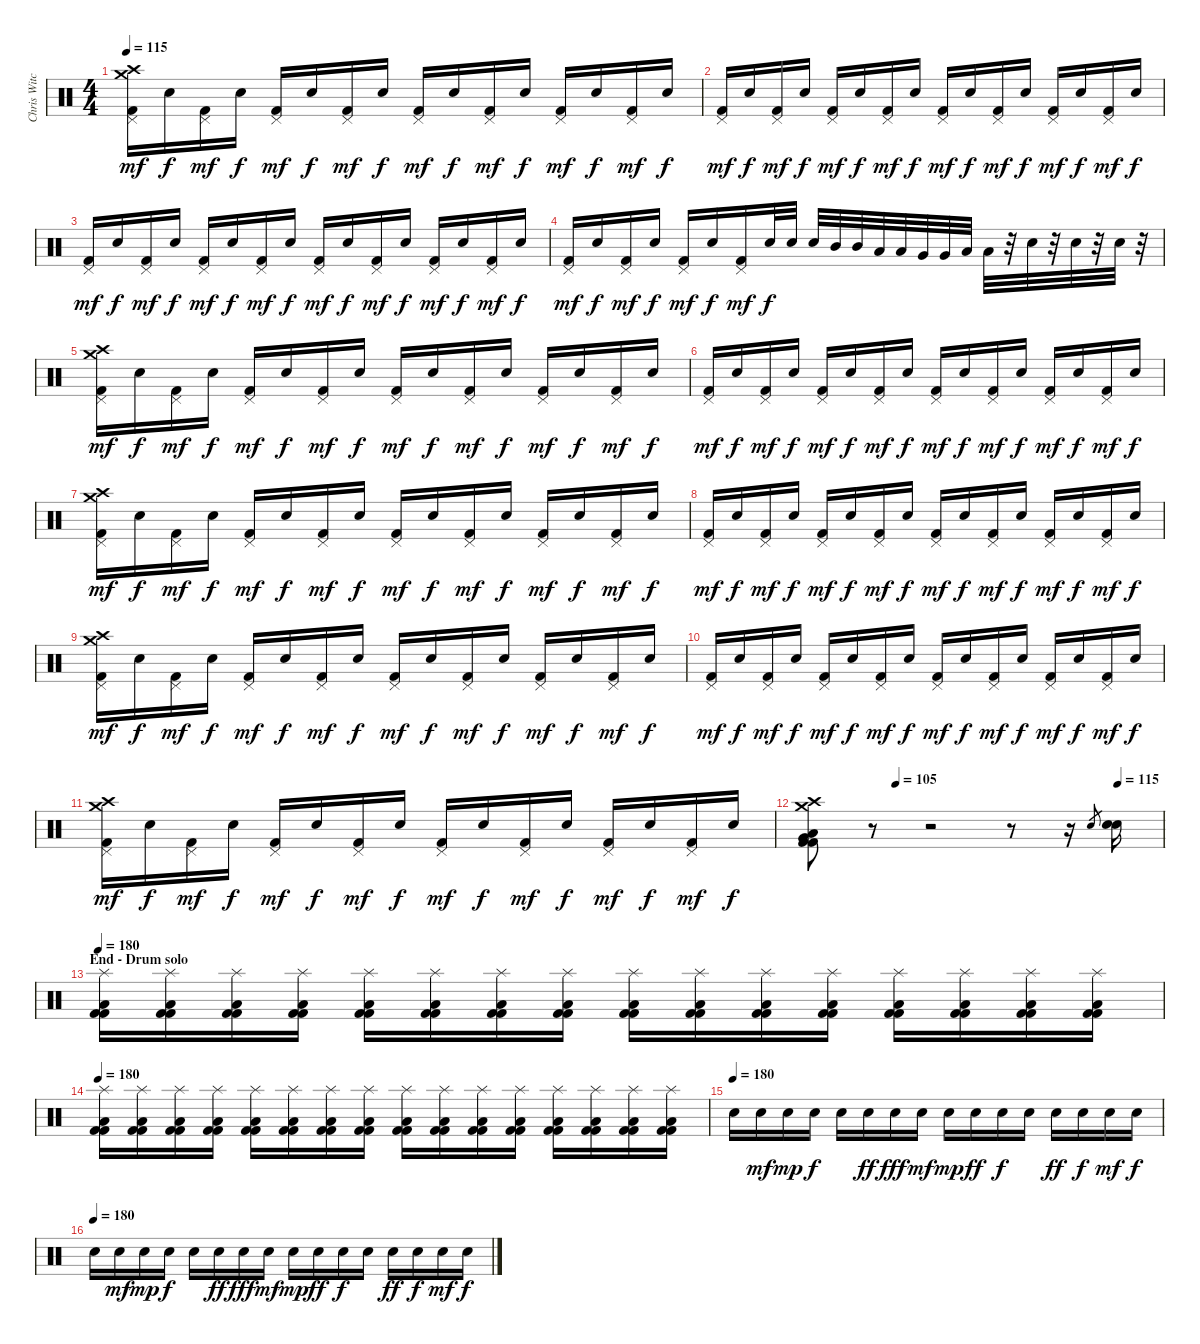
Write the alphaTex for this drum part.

\track ("Chris Witchhunter (Drums)" "Chris Witc") {instrument percussion}
\staff {score}
\articulation defaults
\ts (4 4)
\tempo 115
\clef neutral
\ks c
("Crash high (hit)" "Crash medium (hit)" "Pedal Hi-Hat (hit)" "Kick (hit) 2").16{dy mf} "Snare (hit) 2".16{dy f} ("Pedal Hi-Hat (hit)" "Kick (hit) 2").16{dy mf} "Snare (hit) 2".16{dy f} ("Pedal Hi-Hat (hit)" "Kick (hit) 2").16{dy mf} "Snare (hit) 2".16{dy f} ("Pedal Hi-Hat (hit)" "Kick (hit) 2").16{dy mf} "Snare (hit) 2".16{dy f} ("Pedal Hi-Hat (hit)" "Kick (hit) 2").16{dy mf} "Snare (hit) 2".16{dy f} ("Pedal Hi-Hat (hit)" "Kick (hit) 2").16{dy mf} "Snare (hit) 2".16{dy f} ("Pedal Hi-Hat (hit)" "Kick (hit) 2").16{dy mf} "Snare (hit) 2".16{dy f} ("Pedal Hi-Hat (hit)" "Kick (hit) 2").16{dy mf} "Snare (hit) 2".16{dy f} |
("Pedal Hi-Hat (hit)" "Kick (hit) 2").16{dy mf} "Snare (hit) 2".16{dy f} ("Pedal Hi-Hat (hit)" "Kick (hit) 2").16{dy mf} "Snare (hit) 2".16{dy f} ("Pedal Hi-Hat (hit)" "Kick (hit) 2").16{dy mf} "Snare (hit) 2".16{dy f} ("Pedal Hi-Hat (hit)" "Kick (hit) 2").16{dy mf} "Snare (hit) 2".16{dy f} ("Pedal Hi-Hat (hit)" "Kick (hit) 2").16{dy mf} "Snare (hit) 2".16{dy f} ("Pedal Hi-Hat (hit)" "Kick (hit) 2").16{dy mf} "Snare (hit) 2".16{dy f} ("Pedal Hi-Hat (hit)" "Kick (hit) 2").16{dy mf} "Snare (hit) 2".16{dy f} ("Pedal Hi-Hat (hit)" "Kick (hit) 2").16{dy mf} "Snare (hit) 2".16{dy f} |
("Pedal Hi-Hat (hit)" "Kick (hit) 2").16{dy mf} "Snare (hit) 2".16{dy f} ("Pedal Hi-Hat (hit)" "Kick (hit) 2").16{dy mf} "Snare (hit) 2".16{dy f} ("Pedal Hi-Hat (hit)" "Kick (hit) 2").16{dy mf} "Snare (hit) 2".16{dy f} ("Pedal Hi-Hat (hit)" "Kick (hit) 2").16{dy mf} "Snare (hit) 2".16{dy f} ("Pedal Hi-Hat (hit)" "Kick (hit) 2").16{dy mf} "Snare (hit) 2".16{dy f} ("Pedal Hi-Hat (hit)" "Kick (hit) 2").16{dy mf} "Snare (hit) 2".16{dy f} ("Pedal Hi-Hat (hit)" "Kick (hit) 2").16{dy mf} "Snare (hit) 2".16{dy f} ("Pedal Hi-Hat (hit)" "Kick (hit) 2").16{dy mf} "Snare (hit) 2".16{dy f} |
("Pedal Hi-Hat (hit)" "Kick (hit) 2").16{dy mf} "Snare (hit) 2".16{dy f} ("Pedal Hi-Hat (hit)" "Kick (hit) 2").16{dy mf} "Snare (hit) 2".16{dy f} ("Pedal Hi-Hat (hit)" "Kick (hit) 2").16{dy mf} "Snare (hit) 2".16{dy f} ("Pedal Hi-Hat (hit)" "Kick (hit) 2").16{dy mf} "Snare (hit) 2".32{dy f} "Snare (hit) 2".32 "Snare (hit) 2".32 "Mid Tom (hit)".32 "Mid Tom (hit)".32 "Low Tom (hit)".32 "Low Tom (hit)".32 "Very Low Tom (hit)".32 "Very Low Tom (hit)".32 "Low Floor Tom (hit)".32 "Low Floor Tom (hit)".32 r.32 "Snare (hit) 2".32 r.32 "Snare (hit) 2".32 r.32 "Snare (hit) 2".32 r.32 |
("Crash high (hit)" "Crash medium (hit)" "Pedal Hi-Hat (hit)" "Kick (hit) 2").16{dy mf} "Snare (hit) 2".16{dy f} ("Pedal Hi-Hat (hit)" "Kick (hit) 2").16{dy mf} "Snare (hit) 2".16{dy f} ("Pedal Hi-Hat (hit)" "Kick (hit) 2").16{dy mf} "Snare (hit) 2".16{dy f} ("Pedal Hi-Hat (hit)" "Kick (hit) 2").16{dy mf} "Snare (hit) 2".16{dy f} ("Pedal Hi-Hat (hit)" "Kick (hit) 2").16{dy mf} "Snare (hit) 2".16{dy f} ("Pedal Hi-Hat (hit)" "Kick (hit) 2").16{dy mf} "Snare (hit) 2".16{dy f} ("Pedal Hi-Hat (hit)" "Kick (hit) 2").16{dy mf} "Snare (hit) 2".16{dy f} ("Pedal Hi-Hat (hit)" "Kick (hit) 2").16{dy mf} "Snare (hit) 2".16{dy f} |
("Pedal Hi-Hat (hit)" "Kick (hit) 2").16{dy mf} "Snare (hit) 2".16{dy f} ("Pedal Hi-Hat (hit)" "Kick (hit) 2").16{dy mf} "Snare (hit) 2".16{dy f} ("Pedal Hi-Hat (hit)" "Kick (hit) 2").16{dy mf} "Snare (hit) 2".16{dy f} ("Pedal Hi-Hat (hit)" "Kick (hit) 2").16{dy mf} "Snare (hit) 2".16{dy f} ("Pedal Hi-Hat (hit)" "Kick (hit) 2").16{dy mf} "Snare (hit) 2".16{dy f} ("Pedal Hi-Hat (hit)" "Kick (hit) 2").16{dy mf} "Snare (hit) 2".16{dy f} ("Pedal Hi-Hat (hit)" "Kick (hit) 2").16{dy mf} "Snare (hit) 2".16{dy f} ("Pedal Hi-Hat (hit)" "Kick (hit) 2").16{dy mf} "Snare (hit) 2".16{dy f} |
("Crash high (hit)" "Crash medium (hit)" "Pedal Hi-Hat (hit)" "Kick (hit) 2").16{dy mf} "Snare (hit) 2".16{dy f} ("Pedal Hi-Hat (hit)" "Kick (hit) 2").16{dy mf} "Snare (hit) 2".16{dy f} ("Pedal Hi-Hat (hit)" "Kick (hit) 2").16{dy mf} "Snare (hit) 2".16{dy f} ("Pedal Hi-Hat (hit)" "Kick (hit) 2").16{dy mf} "Snare (hit) 2".16{dy f} ("Pedal Hi-Hat (hit)" "Kick (hit) 2").16{dy mf} "Snare (hit) 2".16{dy f} ("Pedal Hi-Hat (hit)" "Kick (hit) 2").16{dy mf} "Snare (hit) 2".16{dy f} ("Pedal Hi-Hat (hit)" "Kick (hit) 2").16{dy mf} "Snare (hit) 2".16{dy f} ("Pedal Hi-Hat (hit)" "Kick (hit) 2").16{dy mf} "Snare (hit) 2".16{dy f} |
("Pedal Hi-Hat (hit)" "Kick (hit) 2").16{dy mf} "Snare (hit) 2".16{dy f} ("Pedal Hi-Hat (hit)" "Kick (hit) 2").16{dy mf} "Snare (hit) 2".16{dy f} ("Pedal Hi-Hat (hit)" "Kick (hit) 2").16{dy mf} "Snare (hit) 2".16{dy f} ("Pedal Hi-Hat (hit)" "Kick (hit) 2").16{dy mf} "Snare (hit) 2".16{dy f} ("Pedal Hi-Hat (hit)" "Kick (hit) 2").16{dy mf} "Snare (hit) 2".16{dy f} ("Pedal Hi-Hat (hit)" "Kick (hit) 2").16{dy mf} "Snare (hit) 2".16{dy f} ("Pedal Hi-Hat (hit)" "Kick (hit) 2").16{dy mf} "Snare (hit) 2".16{dy f} ("Pedal Hi-Hat (hit)" "Kick (hit) 2").16{dy mf} "Snare (hit) 2".16{dy f} |
("Crash high (hit)" "Crash medium (hit)" "Pedal Hi-Hat (hit)" "Kick (hit) 2").16{dy mf} "Snare (hit) 2".16{dy f} ("Pedal Hi-Hat (hit)" "Kick (hit) 2").16{dy mf} "Snare (hit) 2".16{dy f} ("Pedal Hi-Hat (hit)" "Kick (hit) 2").16{dy mf} "Snare (hit) 2".16{dy f} ("Pedal Hi-Hat (hit)" "Kick (hit) 2").16{dy mf} "Snare (hit) 2".16{dy f} ("Pedal Hi-Hat (hit)" "Kick (hit) 2").16{dy mf} "Snare (hit) 2".16{dy f} ("Pedal Hi-Hat (hit)" "Kick (hit) 2").16{dy mf} "Snare (hit) 2".16{dy f} ("Pedal Hi-Hat (hit)" "Kick (hit) 2").16{dy mf} "Snare (hit) 2".16{dy f} ("Pedal Hi-Hat (hit)" "Kick (hit) 2").16{dy mf} "Snare (hit) 2".16{dy f} |
("Pedal Hi-Hat (hit)" "Kick (hit) 2").16{dy mf} "Snare (hit) 2".16{dy f} ("Pedal Hi-Hat (hit)" "Kick (hit) 2").16{dy mf} "Snare (hit) 2".16{dy f} ("Pedal Hi-Hat (hit)" "Kick (hit) 2").16{dy mf} "Snare (hit) 2".16{dy f} ("Pedal Hi-Hat (hit)" "Kick (hit) 2").16{dy mf} "Snare (hit) 2".16{dy f} ("Pedal Hi-Hat (hit)" "Kick (hit) 2").16{dy mf} "Snare (hit) 2".16{dy f} ("Pedal Hi-Hat (hit)" "Kick (hit) 2").16{dy mf} "Snare (hit) 2".16{dy f} ("Pedal Hi-Hat (hit)" "Kick (hit) 2").16{dy mf} "Snare (hit) 2".16{dy f} ("Pedal Hi-Hat (hit)" "Kick (hit) 2").16{dy mf} "Snare (hit) 2".16{dy f} |
("Crash high (hit)" "Crash medium (hit)" "Pedal Hi-Hat (hit)" "Kick (hit) 2").16{dy mf} "Snare (hit) 2".16{dy f} ("Pedal Hi-Hat (hit)" "Kick (hit) 2").16{dy mf} "Snare (hit) 2".16{dy f} ("Pedal Hi-Hat (hit)" "Kick (hit) 2").16{dy mf} "Snare (hit) 2".16{dy f} ("Pedal Hi-Hat (hit)" "Kick (hit) 2").16{dy mf} "Snare (hit) 2".16{dy f} ("Pedal Hi-Hat (hit)" "Kick (hit) 2").16{dy mf} "Snare (hit) 2".16{dy f} ("Pedal Hi-Hat (hit)" "Kick (hit) 2").16{dy mf} "Snare (hit) 2".16{dy f} ("Pedal Hi-Hat (hit)" "Kick (hit) 2").16{dy mf} "Snare (hit) 2".16{dy f} ("Pedal Hi-Hat (hit)" "Kick (hit) 2").16{dy mf} "Snare (hit) 2".16{dy f} |
\tempo (105 0.25)
\tempo (115 0.875)
("Crash medium (hit)" "Crash high (hit)" "Very Low Tom (hit)" "Low Floor Tom (hit)" "Kick (hit) 2" "Kick (hit) 2").8 r.8 r.2 r.8 r.16 "Snare (hit) 2".8{gr} ("Snare (hit) 2" "Snare (hit) 2").16 |
\section ("" "End - Drum solo")
\tempo 180
("Low Floor Tom (hit)" "Splash (hit)" "Kick (hit) 2" "Kick (hit) 2").16 ("Low Floor Tom (hit)" "Splash (hit)" "Kick (hit) 2" "Kick (hit) 2").16 ("Low Floor Tom (hit)" "Splash (hit)" "Kick (hit) 2" "Kick (hit) 2").16 ("Low Floor Tom (hit)" "Splash (hit)" "Kick (hit) 2" "Kick (hit) 2").16 ("Low Floor Tom (hit)" "Splash (hit)" "Kick (hit) 2" "Kick (hit) 2").16 ("Low Floor Tom (hit)" "Splash (hit)" "Kick (hit) 2" "Kick (hit) 2").16 ("Low Floor Tom (hit)" "Splash (hit)" "Kick (hit) 2" "Kick (hit) 2").16 ("Low Floor Tom (hit)" "Splash (hit)" "Kick (hit) 2" "Kick (hit) 2").16 ("Low Floor Tom (hit)" "Splash (hit)" "Kick (hit) 2" "Kick (hit) 2").16 ("Low Floor Tom (hit)" "Splash (hit)" "Kick (hit) 2" "Kick (hit) 2").16 ("Low Floor Tom (hit)" "Splash (hit)" "Kick (hit) 2" "Kick (hit) 2").16 ("Low Floor Tom (hit)" "Splash (hit)" "Kick (hit) 2" "Kick (hit) 2").16 ("Low Floor Tom (hit)" "Splash (hit)" "Kick (hit) 2" "Kick (hit) 2").16 ("Low Floor Tom (hit)" "Splash (hit)" "Kick (hit) 2" "Kick (hit) 2").16 ("Low Floor Tom (hit)" "Splash (hit)" "Kick (hit) 2" "Kick (hit) 2").16 ("Low Floor Tom (hit)" "Splash (hit)" "Kick (hit) 2" "Kick (hit) 2").16 |
\tempo 180
("Low Floor Tom (hit)" "Splash (hit)" "Kick (hit) 2" "Kick (hit) 2").16 ("Low Floor Tom (hit)" "Splash (hit)" "Kick (hit) 2" "Kick (hit) 2").16 ("Low Floor Tom (hit)" "Splash (hit)" "Kick (hit) 2" "Kick (hit) 2").16 ("Low Floor Tom (hit)" "Splash (hit)" "Kick (hit) 2" "Kick (hit) 2").16 ("Low Floor Tom (hit)" "Splash (hit)" "Kick (hit) 2" "Kick (hit) 2").16 ("Low Floor Tom (hit)" "Splash (hit)" "Kick (hit) 2" "Kick (hit) 2").16 ("Low Floor Tom (hit)" "Splash (hit)" "Kick (hit) 2" "Kick (hit) 2").16 ("Low Floor Tom (hit)" "Splash (hit)" "Kick (hit) 2" "Kick (hit) 2").16 ("Low Floor Tom (hit)" "Splash (hit)" "Kick (hit) 2" "Kick (hit) 2").16 ("Low Floor Tom (hit)" "Splash (hit)" "Kick (hit) 2" "Kick (hit) 2").16 ("Low Floor Tom (hit)" "Splash (hit)" "Kick (hit) 2" "Kick (hit) 2").16 ("Low Floor Tom (hit)" "Splash (hit)" "Kick (hit) 2" "Kick (hit) 2").16 ("Low Floor Tom (hit)" "Splash (hit)" "Kick (hit) 2" "Kick (hit) 2").16 ("Low Floor Tom (hit)" "Splash (hit)" "Kick (hit) 2" "Kick (hit) 2").16 ("Low Floor Tom (hit)" "Splash (hit)" "Kick (hit) 2" "Kick (hit) 2").16 ("Low Floor Tom (hit)" "Splash (hit)" "Kick (hit) 2" "Kick (hit) 2").16 |
\tempo (180)
"Snare (hit) 2".16 "Snare (hit) 2".16{dy mf} "Snare (hit) 2".16{dy mp} "Snare (hit) 2".16{dy f} "Snare (hit) 2".16 "Snare (hit) 2".16{dy ff} "Snare (hit) 2".16{dy fff} "Snare (hit) 2".16{dy mf} "Snare (hit) 2".16{dy mp} "Snare (hit) 2".16{dy ff} "Snare (hit) 2".16{dy f} "Snare (hit) 2".16 "Snare (hit) 2".16{dy ff} "Snare (hit) 2".16{dy f} "Snare (hit) 2".16{dy mf} "Snare (hit) 2".16{dy f} |
\tempo (180)
"Snare (hit) 2".16 "Snare (hit) 2".16{dy mf} "Snare (hit) 2".16{dy mp} "Snare (hit) 2".16{dy f} "Snare (hit) 2".16 "Snare (hit) 2".16{dy ff} "Snare (hit) 2".16{dy fff} "Snare (hit) 2".16{dy mf} "Snare (hit) 2".16{dy mp} "Snare (hit) 2".16{dy ff} "Snare (hit) 2".16{dy f} "Snare (hit) 2".16 "Snare (hit) 2".16{dy ff} "Snare (hit) 2".16{dy f} "Snare (hit) 2".16{dy mf} "Snare (hit) 2".16{dy f}
